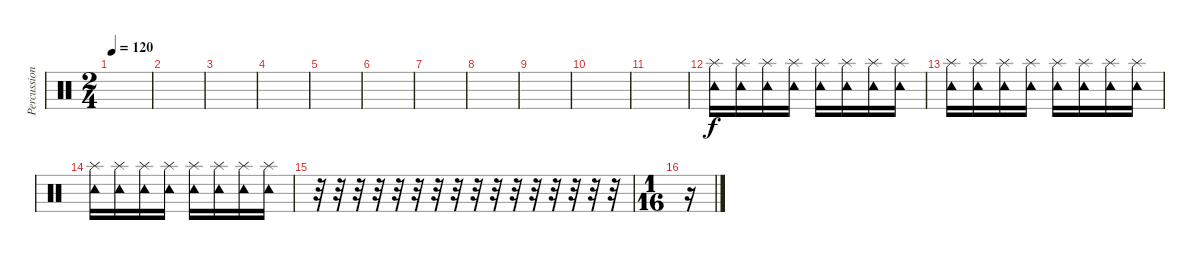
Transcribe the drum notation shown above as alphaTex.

\track ("Percussion 3" "Percussion") {instrument percussion}
\staff {score}
\articulation defaults
\ts (2 4)
\tempo 120
\clef neutral
\ks c
|
|
|
|
|
|
|
|
|
|
|
("Tambourine (hit)" "Splash (hit)").16 ("Tambourine (hit)" "Splash (hit)").16 ("Tambourine (hit)" "Splash (hit)").16 ("Tambourine (hit)" "Splash (hit)").16 ("Tambourine (hit)" "Splash (hit)").16 ("Tambourine (hit)" "Splash (hit)").16 ("Tambourine (hit)" "Splash (hit)").16 ("Tambourine (hit)" "Splash (hit)").16 |
("Tambourine (hit)" "Splash (hit)").16 ("Tambourine (hit)" "Splash (hit)").16 ("Tambourine (hit)" "Splash (hit)").16 ("Tambourine (hit)" "Splash (hit)").16 ("Tambourine (hit)" "Splash (hit)").16 ("Tambourine (hit)" "Splash (hit)").16 ("Tambourine (hit)" "Splash (hit)").16 ("Tambourine (hit)" "Splash (hit)").16 |
("Tambourine (hit)" "Splash (hit)").16 ("Tambourine (hit)" "Splash (hit)").16 ("Tambourine (hit)" "Splash (hit)").16 ("Tambourine (hit)" "Splash (hit)").16 ("Tambourine (hit)" "Splash (hit)").16 ("Tambourine (hit)" "Splash (hit)").16 ("Tambourine (hit)" "Splash (hit)").16 ("Tambourine (hit)" "Splash (hit)").16 |
r.32 r.32 r.32 r.32 r.32 r.32 r.32 r.32 r.32 r.32 r.32 r.32 r.32 r.32 r.32 r.32 |
\ts (1 16)
r.16
